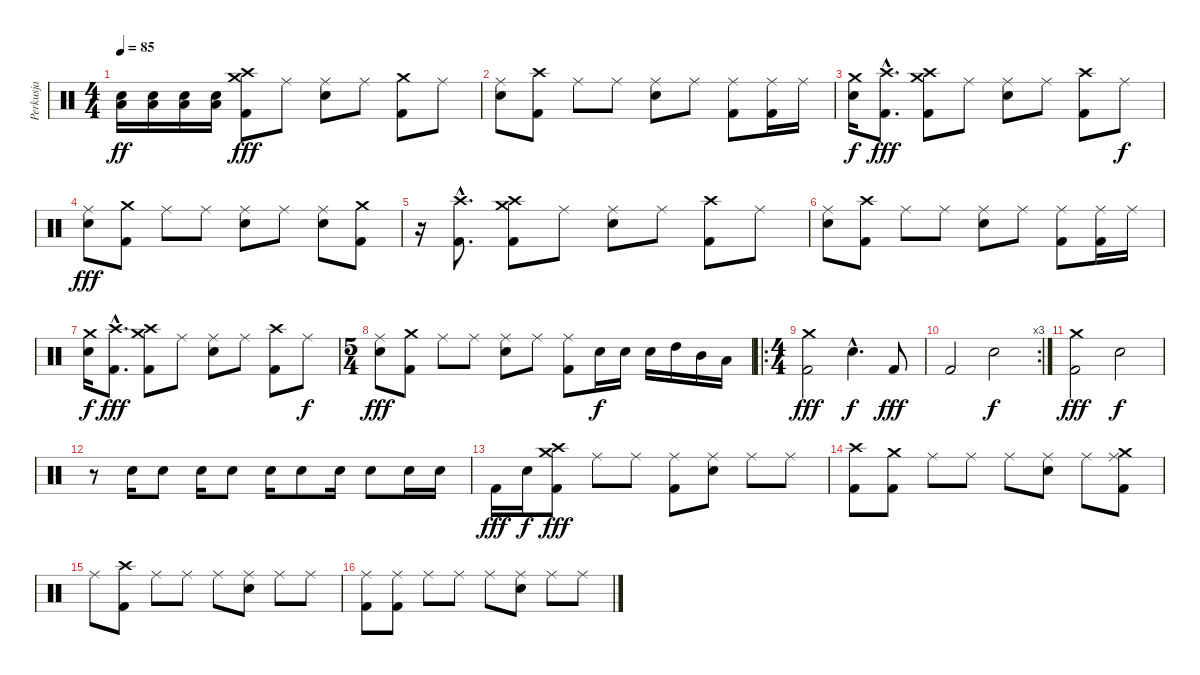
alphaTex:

\track ("Perkusja" "Perkusja") {instrument percussion}
\staff {score}
\articulation defaults
\ts (4 4)
\tempo 85
\clef neutral
\ks c
("Low Tom (hit)" "Electric Snare (hit)").16{dy ff} ("Low Tom (hit)" "Electric Snare (hit)").16 ("Low Tom (hit)" "Electric Snare (hit)").16 ("Low Tom (hit)" "Electric Snare (hit)").16 ("Crash medium (hit)" "Crash high (hit)" "Kick (hit) 2").8{dy fff} "Ride (middle)".8 ("Ride (middle)" "Electric Snare (hit)").8 "Ride (middle)".8 ("Crash medium (hit)" "Kick (hit) 2").8 "Ride (middle)".8 |
("Ride (middle)" "Electric Snare (hit)").8 ("Crash high (hit)" "Kick (hit) 2").8 "Ride (middle)".8 "Ride (middle)".8 ("Ride (middle)" "Electric Snare (hit)").8 "Ride (middle)".8 ("Ride (middle)" "Kick (hit) 2").8 ("Ride (middle)" "Kick (hit) 2").16 "Ride (middle)".16 |
("Crash medium (hit)" "Electric Snare (hit)").16{dy f} ("Crash high (hit)"{hac} "Kick (hit) 2"{hac}).8{d dy fff} ("Crash medium (hit)" "Crash high (hit)" "Kick (hit) 2").8 "Ride (middle)".8 ("Ride (middle)" "Electric Snare (hit)").8 "Ride (middle)".8 ("Crash high (hit)" "Kick (hit) 2").8 "Ride (middle)".8{dy f} |
("Ride (middle)" "Electric Snare (hit)").8{dy fff} ("Crash medium (hit)" "Kick (hit) 2").8 "Ride (middle)".8 "Ride (middle)".8 ("Ride (middle)" "Electric Snare (hit)").8 "Ride (middle)".8 ("Ride (middle)" "Electric Snare (hit)").8 ("Crash medium (hit)" "Kick (hit) 2").8 |
r.16 ("Crash high (hit)"{hac} "Kick (hit) 2"{hac}).8{d} ("Crash medium (hit)" "Crash high (hit)" "Kick (hit) 2").8 "Ride (middle)".8 ("Ride (middle)" "Electric Snare (hit)").8 "Ride (middle)".8 ("Crash high (hit)" "Kick (hit) 2").8 "Ride (middle)".8 |
("Ride (middle)" "Electric Snare (hit)").8 ("Crash high (hit)" "Kick (hit) 2").8 "Ride (middle)".8 "Ride (middle)".8 ("Ride (middle)" "Electric Snare (hit)").8 "Ride (middle)".8 ("Ride (middle)" "Kick (hit) 2").8 ("Ride (middle)" "Kick (hit) 2").16 "Ride (middle)".16 |
("Crash medium (hit)" "Electric Snare (hit)").16{dy f} ("Crash high (hit)"{hac} "Kick (hit) 2"{hac}).8{d dy fff} ("Crash medium (hit)" "Crash high (hit)" "Kick (hit) 2").8 "Ride (middle)".8 ("Ride (middle)" "Electric Snare (hit)").8 "Ride (middle)".8 ("Crash high (hit)" "Kick (hit) 2").8 "Ride (middle)".8{dy f} |
\ts (5 4)
("Ride (middle)" "Electric Snare (hit)").8{dy fff} ("Crash medium (hit)" "Kick (hit) 2").8 "Ride (middle)".8 "Ride (middle)".8 ("Ride (middle)" "Electric Snare (hit)").8 "Ride (middle)".8 ("Ride (middle)" "Kick (hit) 2").8 "Electric Snare (hit)".16{dy f} "Electric Snare (hit)".16 "Electric Snare (hit)".16 "High Tom (hit)".16 "Mid Tom (hit)".16 "Low Tom (hit)".16 |
\ro
\ts (4 4)
("Crash medium (hit)" "Kick (hit) 2").2{dy fff} "Electric Snare (hit)"{hac}.4{d dy f} "Kick (hit) 2".8{dy fff} |
\rc 3 "Kick (hit) 2".2 "Electric Snare (hit)".2{dy f}
|
("Crash medium (hit)" "Kick (hit) 2").2{dy fff} "Electric Snare (hit)".2{dy f} |
r.8 "Electric Snare (hit)".16 "Electric Snare (hit)".8 "Electric Snare (hit)".16 "Electric Snare (hit)".8 "Electric Snare (hit)".16 "Electric Snare (hit)".8 "Electric Snare (hit)".16 "Electric Snare (hit)".8 "Electric Snare (hit)".16 "Electric Snare (hit)".16 |
"Kick (hit) 2".16{dy fff} "Electric Snare (hit)".16{dy f} ("Crash medium (hit)" "Crash high (hit)" "Kick (hit) 2").8{dy fff} "Ride (middle)".8 "Ride (middle)".8 ("Ride (middle)" "Kick (hit) 2").8 ("Ride (middle)" "Electric Snare (hit)").8 "Ride (middle)".8 "Ride (middle)".8 |
("Crash high (hit)" "Kick (hit) 2").8 ("Crash medium (hit)" "Kick (hit) 2").8 "Ride (middle)".8 "Ride (middle)".8 "Ride (middle)".8 ("Ride (middle)" "Electric Snare (hit)").8 "Ride (middle)".8 ("Crash medium (hit)" "Ride (middle)" "Kick (hit) 2").8 |
"Ride (middle)".8 ("Crash high (hit)" "Kick (hit) 2").8 "Ride (middle)".8 "Ride (middle)".8 "Ride (middle)".8 ("Ride (middle)" "Electric Snare (hit)").8 "Ride (middle)".8 "Ride (middle)".8 |
("Ride (middle)" "Kick (hit) 2").8 ("Ride (middle)" "Kick (hit) 2").8 "Ride (middle)".8 "Ride (middle)".8 "Ride (middle)".8 ("Ride (middle)" "Electric Snare (hit)").8 "Ride (middle)".8 "Ride (middle)".8
